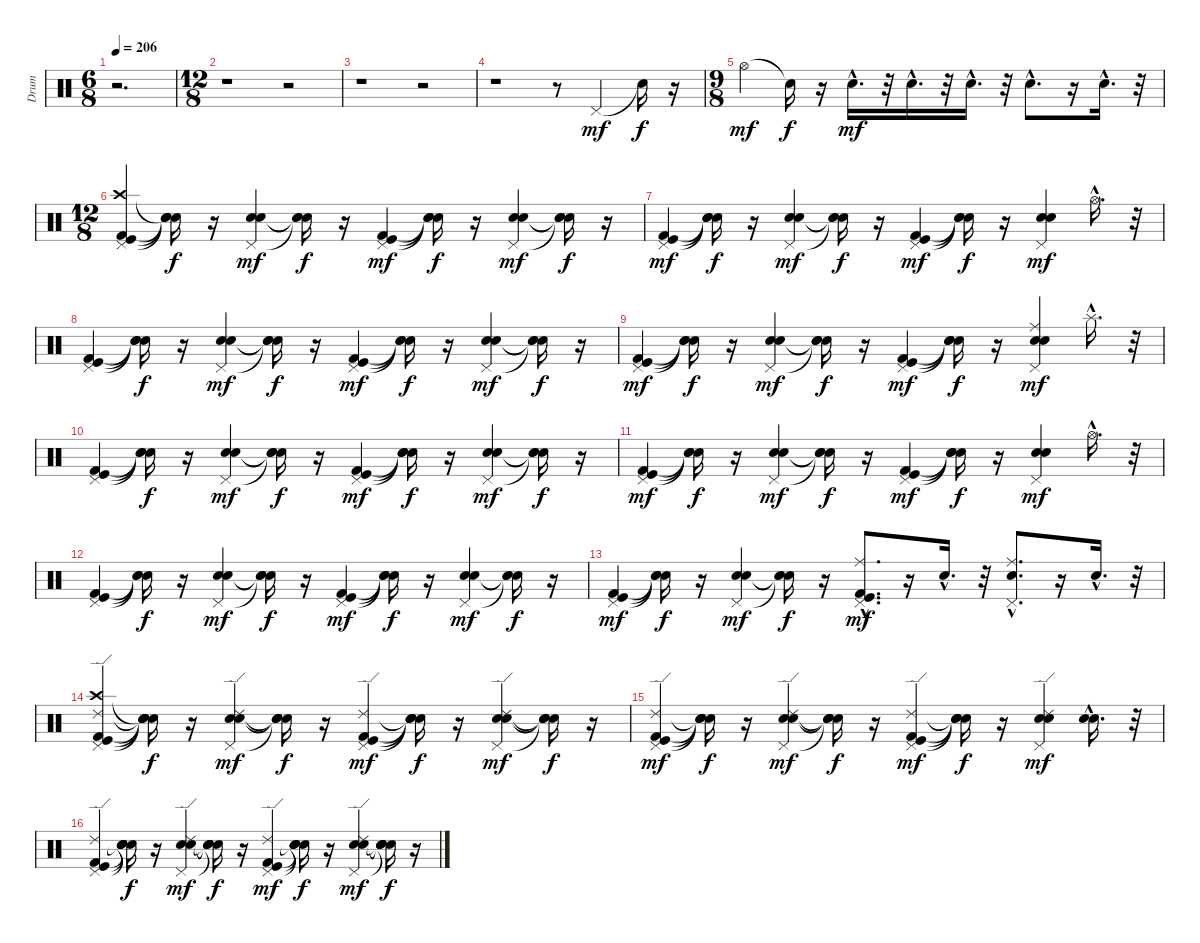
\track ("Drum" "Drum") {instrument percussion}
\staff {score}
\articulation defaults
\ts (6 8)
\tempo 206
\clef neutral
\ks c
r.2{d dy mf} |
\ts (12 8)
r.1 r.2 |
r.1 r.2 |
r.1 r.8 "Pedal Hi-Hat (hit)".4 "Snare (hit)"{t}.16{dy f} r.16 |
\ts (9 8)
"Hi-Hat (open)".4{dy mf} "Snare (hit)"{t}.16{dy f} r.16 "Snare (hit) 2"{hac}.16{d dy mf} r.32 "Snare (hit) 2"{hac}.16{d} r.32 "Snare (hit) 2"{hac}.16{d} r.32 "Snare (hit) 2"{hac}.8{d} r.16 "Snare (hit) 2"{hac}.16{d} r.32 |
\ts (12 8)
("Kick (hit)" "Pedal Hi-Hat (hit)" "Crash high (hit)" "Kick (hit) 2").4 ("Snare (hit)"{t} "Snare (hit)"{t} "Snare (hit)"{t} "Snare (hit)"{t}).16{dy f} r.16 ("Snare (hit) 2" "Pedal Hi-Hat (hit)" "Electric Snare (hit)").4{dy mf} ("Snare (hit)"{t} "Snare (hit)"{t} "Snare (hit)"{t}).16{dy f} r.16 ("Pedal Hi-Hat (hit)" "Kick (hit)" "Kick (hit) 2").4{dy mf} ("Snare (hit)"{t} "Snare (hit)"{t} "Snare (hit)"{t}).16{dy f} r.16 ("Snare (hit) 2" "Pedal Hi-Hat (hit)" "Electric Snare (hit)").4{dy mf} ("Snare (hit)"{t} "Snare (hit)"{t} "Snare (hit)"{t}).16{dy f} r.16 |
("Pedal Hi-Hat (hit)" "Kick (hit) 2" "Kick (hit)").4{dy mf} ("Snare (hit)"{t} "Snare (hit)"{t} "Snare (hit)"{t}).16{dy f} r.16 ("Snare (hit) 2" "Pedal Hi-Hat (hit)" "Electric Snare (hit)").4{dy mf} ("Snare (hit)"{t} "Snare (hit)"{t} "Snare (hit)"{t}).16{dy f} r.16 ("Pedal Hi-Hat (hit)" "Kick (hit) 2" "Kick (hit)").4{dy mf} ("Snare (hit)"{t} "Snare (hit)"{t} "Snare (hit)"{t}).16{dy f} r.16 ("Snare (hit) 2" "Electric Snare (hit)" "Pedal Hi-Hat (hit)").4{dy mf} "Hi-Hat (open)"{hac}.16{d} r.32 |
("Kick (hit) 2" "Kick (hit)" "Pedal Hi-Hat (hit)").4 ("Snare (hit)"{t} "Snare (hit)"{t} "Snare (hit)"{t}).16{dy f} r.16 ("Electric Snare (hit)" "Snare (hit) 2" "Pedal Hi-Hat (hit)").4{dy mf} ("Snare (hit)"{t} "Snare (hit)"{t} "Snare (hit)"{t}).16{dy f} r.16 ("Kick (hit) 2" "Kick (hit)" "Pedal Hi-Hat (hit)").4{dy mf} ("Snare (hit)"{t} "Snare (hit)"{t} "Snare (hit)"{t}).16{dy f} r.16 ("Electric Snare (hit)" "Snare (hit) 2" "Pedal Hi-Hat (hit)").4{dy mf} ("Snare (hit)"{t} "Snare (hit)"{t} "Snare (hit)"{t}).16{dy f} r.16 |
("Kick (hit)" "Kick (hit) 2" "Pedal Hi-Hat (hit)").4{dy mf} ("Snare (hit)"{t} "Snare (hit)"{t} "Snare (hit)"{t}).16{dy f} r.16 ("Snare (hit) 2" "Electric Snare (hit)" "Pedal Hi-Hat (hit)").4{dy mf} ("Snare (hit)"{t} "Snare (hit)"{t} "Snare (hit)"{t}).16{dy f} r.16 ("Kick (hit)" "Kick (hit) 2" "Pedal Hi-Hat (hit)").4{dy mf} ("Snare (hit)"{t} "Snare (hit)"{t} "Snare (hit)"{t}).16{dy f} r.16 ("Ride (middle)" "Snare (hit) 2" "Electric Snare (hit)" "Pedal Hi-Hat (hit)").4{dy mf} "Splash (hit)"{hac}.16{d} r.32 |
("Kick (hit) 2" "Pedal Hi-Hat (hit)" "Kick (hit)").4 ("Snare (hit)"{t} "Snare (hit)"{t} "Snare (hit)"{t}).16{dy f} r.16 ("Pedal Hi-Hat (hit)" "Electric Snare (hit)" "Snare (hit) 2").4{dy mf} ("Snare (hit)"{t} "Snare (hit)"{t} "Snare (hit)"{t}).16{dy f} r.16 ("Kick (hit) 2" "Pedal Hi-Hat (hit)" "Kick (hit)").4{dy mf} ("Snare (hit)"{t} "Snare (hit)"{t} "Snare (hit)"{t}).16{dy f} r.16 ("Electric Snare (hit)" "Pedal Hi-Hat (hit)" "Snare (hit) 2").4{dy mf} ("Snare (hit)"{t} "Snare (hit)"{t} "Snare (hit)"{t}).16{dy f} r.16 |
("Kick (hit)" "Kick (hit) 2" "Pedal Hi-Hat (hit)").4{dy mf} ("Snare (hit)"{t} "Snare (hit)"{t} "Snare (hit)"{t}).16{dy f} r.16 ("Pedal Hi-Hat (hit)" "Snare (hit) 2" "Electric Snare (hit)").4{dy mf} ("Snare (hit)"{t} "Snare (hit)"{t} "Snare (hit)"{t}).16{dy f} r.16 ("Kick (hit) 2" "Kick (hit)" "Pedal Hi-Hat (hit)").4{dy mf} ("Snare (hit)"{t} "Snare (hit)"{t} "Snare (hit)"{t}).16{dy f} r.16 ("Pedal Hi-Hat (hit)" "Electric Snare (hit)" "Snare (hit) 2").4{dy mf} "Hi-Hat (open)"{hac}.16{d} r.32 |
("Kick (hit)" "Pedal Hi-Hat (hit)" "Kick (hit) 2").4 ("Snare (hit)"{t} "Snare (hit)"{t} "Snare (hit)"{t}).16{dy f} r.16 ("Pedal Hi-Hat (hit)" "Electric Snare (hit)" "Snare (hit) 2").4{dy mf} ("Snare (hit)"{t} "Snare (hit)"{t} "Snare (hit)"{t}).16{dy f} r.16 ("Pedal Hi-Hat (hit)" "Kick (hit) 2" "Kick (hit)").4{dy mf} ("Snare (hit)"{t} "Snare (hit)"{t} "Snare (hit)"{t}).16{dy f} r.16 ("Pedal Hi-Hat (hit)" "Snare (hit) 2" "Electric Snare (hit)").4{dy mf} ("Snare (hit)"{t} "Snare (hit)"{t} "Snare (hit)"{t}).16{dy f} r.16 |
("Kick (hit)" "Pedal Hi-Hat (hit)" "Kick (hit) 2").4{dy mf} ("Snare (hit)"{t} "Snare (hit)"{t} "Snare (hit)"{t}).16{dy f} r.16 ("Pedal Hi-Hat (hit)" "Electric Snare (hit)" "Snare (hit) 2").4{dy mf} ("Snare (hit)"{t} "Snare (hit)"{t} "Snare (hit)"{t}).16{dy f} r.16 ("Pedal Hi-Hat (hit)"{hac} "Ride (middle)"{hac} "Kick (hit)"{hac} "Kick (hit) 2"{hac}).8{d dy mf} r.16 "Snare (hit) 2"{hac}.16{d} r.32 ("Snare (hit) 2"{hac} "Pedal Hi-Hat (hit)"{hac} "Ride (middle)"{hac}).8{d} r.16 "Snare (hit) 2"{hac}.16{d} r.32 |
("Ride (edge) 2" "Kick (hit)" "Kick (hit) 2" "Crash high (hit)" "Pedal Hi-Hat (hit)").4 ("Snare (hit)"{t} "Snare (hit)"{t} "Snare (hit)"{t} "Snare (hit)"{t} "Snare (hit)"{t}).16{dy f} r.16 ("Ride (edge) 2" "Pedal Hi-Hat (hit)" "Snare (hit) 2" "Electric Snare (hit)").4{dy mf} ("Snare (hit)"{t} "Snare (hit)"{t} "Snare (hit)"{t} "Snare (hit)"{t}).16{dy f} r.16 ("Ride (edge) 2" "Kick (hit)" "Pedal Hi-Hat (hit)" "Kick (hit) 2").4{dy mf} ("Snare (hit)"{t} "Snare (hit)"{t} "Snare (hit)"{t} "Snare (hit)"{t}).16{dy f} r.16 ("Ride (edge) 2" "Snare (hit) 2" "Electric Snare (hit)" "Pedal Hi-Hat (hit)").4{dy mf} ("Snare (hit)"{t} "Snare (hit)"{t} "Snare (hit)"{t} "Snare (hit)"{t}).16{dy f} r.16 |
("Ride (edge) 2" "Pedal Hi-Hat (hit)" "Kick (hit)" "Kick (hit) 2").4{dy mf} ("Snare (hit)"{t} "Snare (hit)"{t} "Snare (hit)"{t} "Snare (hit)"{t}).16{dy f} r.16 ("Ride (edge) 2" "Snare (hit) 2" "Electric Snare (hit)" "Pedal Hi-Hat (hit)").4{dy mf} ("Snare (hit)"{t} "Snare (hit)"{t} "Snare (hit)"{t} "Snare (hit)"{t}).16{dy f} r.16 ("Ride (edge) 2" "Pedal Hi-Hat (hit)" "Kick (hit) 2" "Kick (hit)").4{dy mf} ("Snare (hit)"{t} "Snare (hit)"{t} "Snare (hit)"{t} "Snare (hit)"{t}).16{dy f} r.16 ("Ride (edge) 2" "Electric Snare (hit)" "Snare (hit) 2" "Pedal Hi-Hat (hit)").4{dy mf} ("Electric Snare (hit)"{hac} "Snare (hit) 2"{hac}).16{d} r.32 |
("Ride (edge) 2" "Kick (hit)" "Kick (hit) 2" "Pedal Hi-Hat (hit)").4 ("Snare (hit)"{t} "Snare (hit)"{t} "Snare (hit)"{t} "Snare (hit)"{t}).16{dy f} r.16 ("Ride (edge) 2" "Pedal Hi-Hat (hit)" "Electric Snare (hit)" "Snare (hit) 2").4{dy mf} ("Snare (hit)"{t} "Snare (hit)"{t} "Snare (hit)"{t} "Snare (hit)"{t}).16{dy f} r.16 ("Ride (edge) 2" "Kick (hit) 2" "Kick (hit)" "Pedal Hi-Hat (hit)").4{dy mf} ("Snare (hit)"{t} "Snare (hit)"{t} "Snare (hit)"{t} "Snare (hit)"{t}).16{dy f} r.16 ("Ride (edge) 2" "Pedal Hi-Hat (hit)" "Snare (hit) 2" "Electric Snare (hit)").4{dy mf} ("Snare (hit)"{t} "Snare (hit)"{t} "Snare (hit)"{t} "Snare (hit)"{t}).16{dy f} r.16
